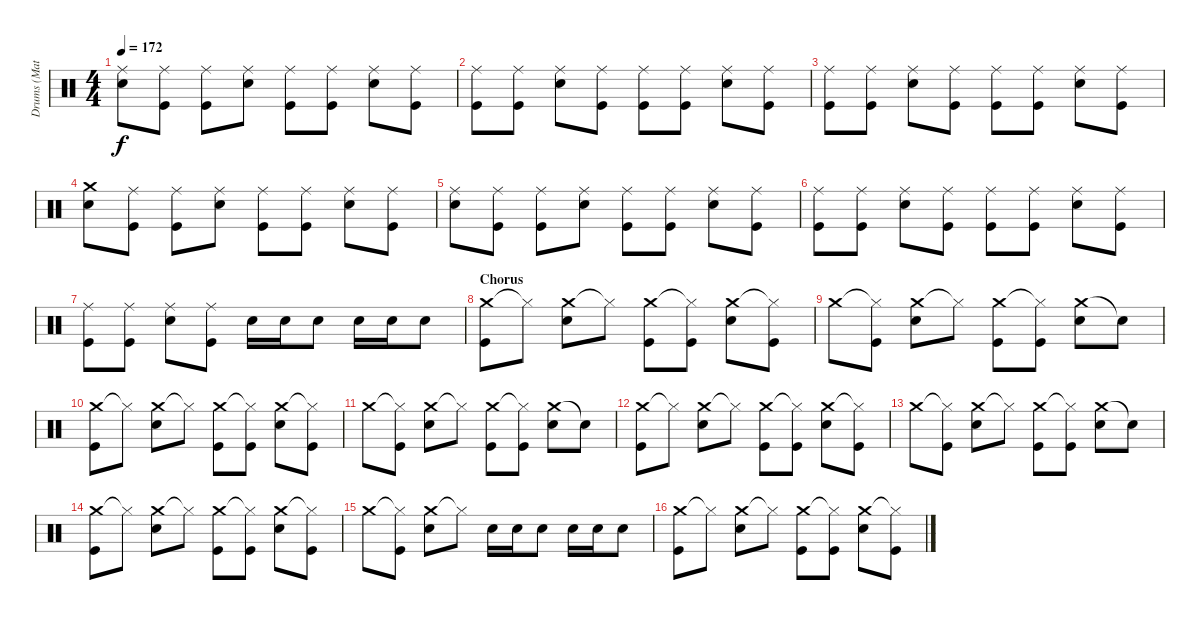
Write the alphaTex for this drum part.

\track ("Drums (Matt)" "Drums (Mat") {instrument percussion}
\staff {score}
\articulation defaults
\ts (4 4)
\tempo 172
\clef neutral
\ks c
("Ride (middle)" "Electric Snare (hit)").8{dy f} ("Ride (middle)" "Kick (hit)").8 ("Ride (middle)" "Kick (hit)").8 ("Ride (middle)" "Electric Snare (hit)").8 ("Ride (middle)" "Kick (hit)").8 ("Ride (middle)" "Kick (hit)").8 ("Ride (middle)" "Electric Snare (hit)").8 ("Ride (middle)" "Kick (hit)").8 |
("Ride (middle)" "Kick (hit)").8 ("Ride (middle)" "Kick (hit)").8 ("Ride (middle)" "Electric Snare (hit)").8 ("Ride (middle)" "Kick (hit)").8 ("Ride (middle)" "Kick (hit)").8 ("Ride (middle)" "Kick (hit)").8 ("Ride (middle)" "Electric Snare (hit)").8 ("Ride (middle)" "Kick (hit)").8 |
("Ride (middle)" "Kick (hit)").8 ("Ride (middle)" "Kick (hit)").8 ("Ride (middle)" "Electric Snare (hit)").8 ("Ride (middle)" "Kick (hit)").8 ("Ride (middle)" "Kick (hit)").8 ("Ride (middle)" "Kick (hit)").8 ("Ride (middle)" "Electric Snare (hit)").8 ("Ride (middle)" "Kick (hit)").8 |
("Crash medium (hit)" "Electric Snare (hit)").8 ("Ride (middle)" "Kick (hit)").8 ("Ride (middle)" "Kick (hit)").8 ("Ride (middle)" "Electric Snare (hit)").8 ("Ride (middle)" "Kick (hit)").8 ("Ride (middle)" "Kick (hit)").8 ("Ride (middle)" "Electric Snare (hit)").8 ("Ride (middle)" "Kick (hit)").8 |
("Ride (middle)" "Electric Snare (hit)").8 ("Ride (middle)" "Kick (hit)").8 ("Ride (middle)" "Kick (hit)").8 ("Ride (middle)" "Electric Snare (hit)").8 ("Ride (middle)" "Kick (hit)").8 ("Ride (middle)" "Kick (hit)").8 ("Ride (middle)" "Electric Snare (hit)").8 ("Ride (middle)" "Kick (hit)").8 |
("Ride (middle)" "Kick (hit)").8 ("Ride (middle)" "Kick (hit)").8 ("Ride (middle)" "Electric Snare (hit)").8 ("Ride (middle)" "Kick (hit)").8 ("Ride (middle)" "Kick (hit)").8 ("Ride (middle)" "Kick (hit)").8 ("Ride (middle)" "Electric Snare (hit)").8 ("Ride (middle)" "Kick (hit)").8 |
("Ride (middle)" "Kick (hit)").8 ("Ride (middle)" "Kick (hit)").8 ("Ride (middle)" "Electric Snare (hit)").8 ("Ride (middle)" "Kick (hit)").8 "Electric Snare (hit)".16 "Electric Snare (hit)".16 "Electric Snare (hit)".8 "Electric Snare (hit)".16 "Electric Snare (hit)".16 "Electric Snare (hit)".8 |
\section ("" "Chorus")
("Crash medium (hit)" "Kick (hit)").8 "Hi-Hat (closed)"{t}.8 ("Crash medium (hit)" "Electric Snare (hit)").8 "Hi-Hat (closed)"{t}.8 ("Crash medium (hit)" "Kick (hit)").8 ("Hi-Hat (closed)"{t} "Kick (hit)").8 ("Crash medium (hit)" "Electric Snare (hit)").8 ("Hi-Hat (closed)"{t} "Kick (hit)").8 |
"Crash medium (hit)".8 ("Hi-Hat (closed)"{t} "Kick (hit)").8 ("Crash medium (hit)" "Electric Snare (hit)").8 "Hi-Hat (closed)"{t}.8 ("Crash medium (hit)" "Kick (hit)").8 ("Hi-Hat (closed)"{t} "Kick (hit)").8 ("Crash medium (hit)" "Electric Snare (hit)").8 "Snare (hit)"{t}.8 |
("Crash medium (hit)" "Kick (hit)").8 "Hi-Hat (closed)"{t}.8 ("Crash medium (hit)" "Electric Snare (hit)").8 "Hi-Hat (closed)"{t}.8 ("Crash medium (hit)" "Kick (hit)").8 ("Hi-Hat (closed)"{t} "Kick (hit)").8 ("Crash medium (hit)" "Electric Snare (hit)").8 ("Hi-Hat (closed)"{t} "Kick (hit)").8 |
"Crash medium (hit)".8 ("Hi-Hat (closed)"{t} "Kick (hit)").8 ("Crash medium (hit)" "Electric Snare (hit)").8 "Hi-Hat (closed)"{t}.8 ("Crash medium (hit)" "Kick (hit)").8 ("Hi-Hat (closed)"{t} "Kick (hit)").8 ("Crash medium (hit)" "Electric Snare (hit)").8 "Snare (hit)"{t}.8 |
("Crash medium (hit)" "Kick (hit)").8 "Hi-Hat (closed)"{t}.8 ("Crash medium (hit)" "Electric Snare (hit)").8 "Hi-Hat (closed)"{t}.8 ("Crash medium (hit)" "Kick (hit)").8 ("Hi-Hat (closed)"{t} "Kick (hit)").8 ("Crash medium (hit)" "Electric Snare (hit)").8 ("Hi-Hat (closed)"{t} "Kick (hit)").8 |
"Crash medium (hit)".8 ("Hi-Hat (closed)"{t} "Kick (hit)").8 ("Crash medium (hit)" "Electric Snare (hit)").8 "Hi-Hat (closed)"{t}.8 ("Crash medium (hit)" "Kick (hit)").8 ("Hi-Hat (closed)"{t} "Kick (hit)").8 ("Crash medium (hit)" "Electric Snare (hit)").8 "Snare (hit)"{t}.8 |
("Crash medium (hit)" "Kick (hit)").8 "Hi-Hat (closed)"{t}.8 ("Crash medium (hit)" "Electric Snare (hit)").8 "Hi-Hat (closed)"{t}.8 ("Crash medium (hit)" "Kick (hit)").8 ("Hi-Hat (closed)"{t} "Kick (hit)").8 ("Crash medium (hit)" "Electric Snare (hit)").8 ("Hi-Hat (closed)"{t} "Kick (hit)").8 |
"Crash medium (hit)".8 ("Hi-Hat (closed)"{t} "Kick (hit)").8 ("Crash medium (hit)" "Electric Snare (hit)").8 "Hi-Hat (closed)"{t}.8 "Electric Snare (hit)".16 "Electric Snare (hit)".16 "Electric Snare (hit)".8 "Electric Snare (hit)".16 "Electric Snare (hit)".16 "Electric Snare (hit)".8 |
("Crash medium (hit)" "Kick (hit)").8 "Hi-Hat (closed)"{t}.8 ("Crash medium (hit)" "Electric Snare (hit)").8 "Hi-Hat (closed)"{t}.8 ("Crash medium (hit)" "Kick (hit)").8 ("Hi-Hat (closed)"{t} "Kick (hit)").8 ("Crash medium (hit)" "Electric Snare (hit)").8 ("Hi-Hat (closed)"{t} "Kick (hit)").8
